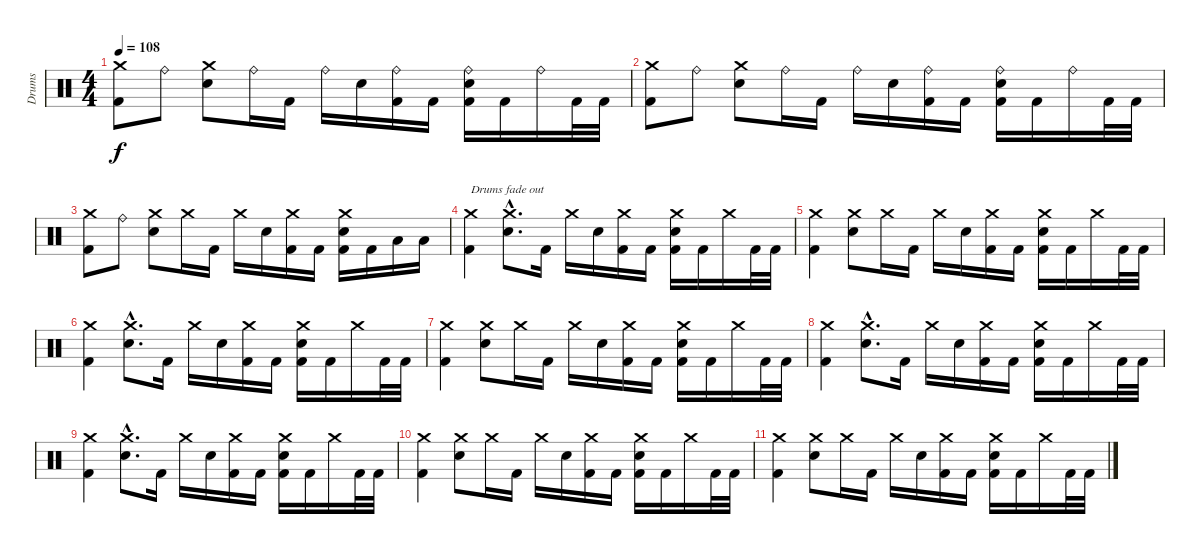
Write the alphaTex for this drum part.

\track ("Drums" "Drums") {instrument percussion}
\staff {score}
\articulation defaults
\ts (4 4)
\tempo 108
\clef neutral
\ks c
("Crash medium (hit)" "Kick (hit) 2").8{dy f} "Ride (bell)".8 ("Crash medium (hit)" "Electric Snare (hit)").8 "Ride (bell)".16 "Kick (hit) 2".16 "Ride (bell)".16 "Electric Snare (hit)".16 ("Ride (bell)" "Kick (hit) 2").16 "Kick (hit) 2".16 ("Ride (bell)" "Electric Snare (hit)" "Kick (hit) 2").16 "Kick (hit) 2".16 "Ride (bell)".16 "Kick (hit) 2".32 "Kick (hit) 2".32 |
("Crash medium (hit)" "Kick (hit) 2").8 "Ride (bell)".8 ("Crash medium (hit)" "Electric Snare (hit)").8 "Ride (bell)".16 "Kick (hit) 2".16 "Ride (bell)".16 "Electric Snare (hit)".16 ("Ride (bell)" "Kick (hit) 2").16 "Kick (hit) 2".16 ("Ride (bell)" "Electric Snare (hit)" "Kick (hit) 2").16 "Kick (hit) 2".16 "Ride (bell)".16 "Kick (hit) 2".32 "Kick (hit) 2".32 |
("Crash medium (hit)" "Kick (hit) 2").8 "Ride (bell)".8 ("Crash medium (hit)" "Electric Snare (hit)").8 "Crash medium (hit)".16 "Kick (hit) 2".16 "Crash medium (hit)".16 "Electric Snare (hit)".16 ("Crash medium (hit)" "Kick (hit) 2").16 "Kick (hit) 2".16 ("Crash medium (hit)" "Electric Snare (hit)" "Kick (hit) 2").16 "Kick (hit) 2".16 "Low Tom (hit)".16 "Low Tom (hit)".16 |
("Crash medium (hit)" "Kick (hit) 2").4{txt "Drums fade out" volume 15} ("Crash medium (hit)"{hac} "Electric Snare (hit)"{hac}).8{d} "Kick (hit) 2".16 "Crash medium (hit)".16{volume 14} "Electric Snare (hit)".16 ("Crash medium (hit)" "Kick (hit) 2").16 "Kick (hit) 2".16 ("Crash medium (hit)" "Electric Snare (hit)" "Kick (hit) 2").16 "Kick (hit) 2".16 "Crash medium (hit)".16 "Kick (hit) 2".32 "Kick (hit) 2".32 |
("Crash medium (hit)" "Kick (hit) 2").4{volume 13} ("Crash medium (hit)" "Electric Snare (hit)").8 "Crash medium (hit)".16 "Kick (hit) 2".16 "Crash medium (hit)".16{volume 12} "Electric Snare (hit)".16 ("Crash medium (hit)" "Kick (hit) 2").16 "Kick (hit) 2".16 ("Crash medium (hit)" "Electric Snare (hit)" "Kick (hit) 2").16 "Kick (hit) 2".16 "Crash medium (hit)".16 "Kick (hit) 2".32 "Kick (hit) 2".32 |
("Crash medium (hit)" "Kick (hit) 2").4{volume 11} ("Crash medium (hit)"{hac} "Electric Snare (hit)"{hac}).8{d} "Kick (hit) 2".16 "Crash medium (hit)".16{volume 10} "Electric Snare (hit)".16 ("Crash medium (hit)" "Kick (hit) 2").16 "Kick (hit) 2".16 ("Crash medium (hit)" "Electric Snare (hit)" "Kick (hit) 2").16 "Kick (hit) 2".16 "Crash medium (hit)".16 "Kick (hit) 2".32 "Kick (hit) 2".32 |
("Crash medium (hit)" "Kick (hit) 2").4{volume 9} ("Crash medium (hit)" "Electric Snare (hit)").8 "Crash medium (hit)".16 "Kick (hit) 2".16 "Crash medium (hit)".16{volume 8} "Electric Snare (hit)".16 ("Crash medium (hit)" "Kick (hit) 2").16 "Kick (hit) 2".16 ("Crash medium (hit)" "Electric Snare (hit)" "Kick (hit) 2").16 "Kick (hit) 2".16 "Crash medium (hit)".16 "Kick (hit) 2".32 "Kick (hit) 2".32 |
("Crash medium (hit)" "Kick (hit) 2").4{volume 7} ("Crash medium (hit)"{hac} "Electric Snare (hit)"{hac}).8{d} "Kick (hit) 2".16 "Crash medium (hit)".16{volume 6} "Electric Snare (hit)".16 ("Crash medium (hit)" "Kick (hit) 2").16 "Kick (hit) 2".16 ("Crash medium (hit)" "Electric Snare (hit)" "Kick (hit) 2").16 "Kick (hit) 2".16 "Crash medium (hit)".16 "Kick (hit) 2".32 "Kick (hit) 2".32 |
("Crash medium (hit)" "Kick (hit) 2").4{volume 5} ("Crash medium (hit)"{hac} "Electric Snare (hit)"{hac}).8{d} "Kick (hit) 2".16 "Crash medium (hit)".16{volume 4} "Electric Snare (hit)".16 ("Crash medium (hit)" "Kick (hit) 2").16 "Kick (hit) 2".16 ("Crash medium (hit)" "Electric Snare (hit)" "Kick (hit) 2").16 "Kick (hit) 2".16 "Crash medium (hit)".16 "Kick (hit) 2".32 "Kick (hit) 2".32 |
("Crash medium (hit)" "Kick (hit) 2").4{volume 3} ("Crash medium (hit)" "Electric Snare (hit)").8 "Crash medium (hit)".16 "Kick (hit) 2".16 "Crash medium (hit)".16{volume 2} "Electric Snare (hit)".16 ("Crash medium (hit)" "Kick (hit) 2").16 "Kick (hit) 2".16 ("Crash medium (hit)" "Electric Snare (hit)" "Kick (hit) 2").16 "Kick (hit) 2".16 "Crash medium (hit)".16 "Kick (hit) 2".32 "Kick (hit) 2".32 |
("Crash medium (hit)" "Kick (hit) 2").4{volume 1} ("Crash medium (hit)" "Electric Snare (hit)").8 "Crash medium (hit)".16 "Kick (hit) 2".16 "Crash medium (hit)".16{volume 0} "Electric Snare (hit)".16 ("Crash medium (hit)" "Kick (hit) 2").16 "Kick (hit) 2".16 ("Crash medium (hit)" "Electric Snare (hit)" "Kick (hit) 2").16 "Kick (hit) 2".16 "Crash medium (hit)".16 "Kick (hit) 2".32 "Kick (hit) 2".32
